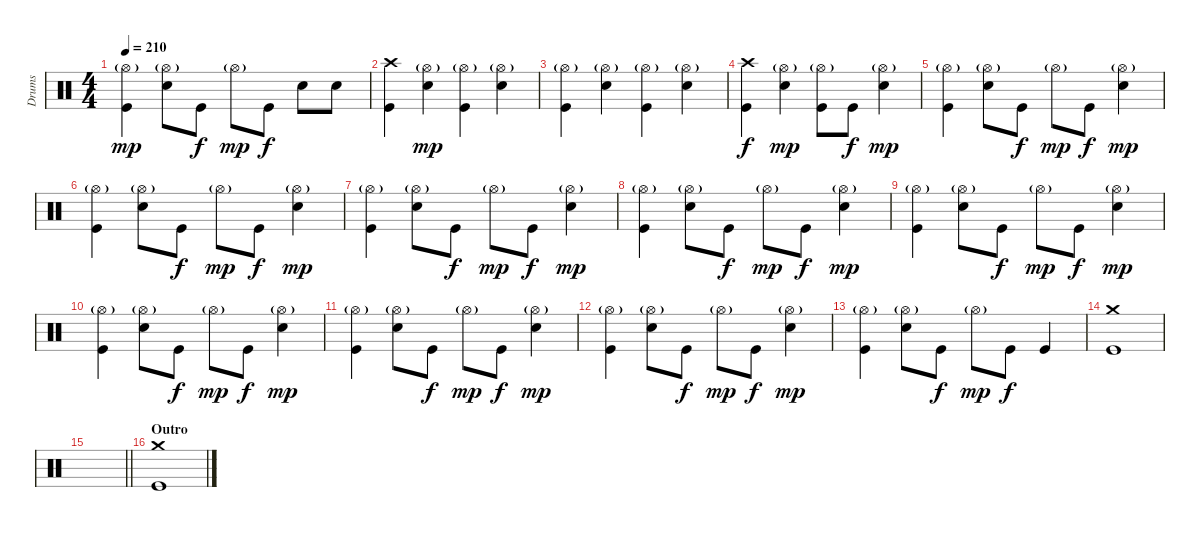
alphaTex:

\track ("Drums" "Drums") {instrument percussion}
\staff {score}
\articulation defaults
\ts (4 4)
\tempo 210
\clef neutral
\ks c
("Hi-Hat (open)"{g} "Kick (hit)").4{dy mp} ("Hi-Hat (open)"{g} "Snare (hit) 2").8 "Kick (hit)".8{dy f} "Hi-Hat (open)"{g}.8{dy mp} "Kick (hit)".8{dy f} "Snare (hit) 2".8 "Snare (hit) 2".8 |
("Crash high (hit)" "Kick (hit)").4 ("Hi-Hat (open)"{g} "Snare (hit) 2").4{dy mp} ("Hi-Hat (open)"{g} "Kick (hit)").4 ("Hi-Hat (open)"{g} "Snare (hit) 2").4 |
("Hi-Hat (open)"{g} "Kick (hit)").4 ("Hi-Hat (open)"{g} "Snare (hit) 2").4 ("Hi-Hat (open)"{g} "Kick (hit)").4 ("Hi-Hat (open)"{g} "Snare (hit) 2").4 |
("Crash high (hit)" "Kick (hit)").4{dy f} ("Hi-Hat (open)"{g} "Snare (hit) 2").4{dy mp} ("Hi-Hat (open)"{g} "Kick (hit)").8 "Kick (hit)".8{dy f} ("Hi-Hat (open)"{g} "Snare (hit) 2").4{dy mp} |
("Hi-Hat (open)"{g} "Kick (hit)").4 ("Hi-Hat (open)"{g} "Snare (hit) 2").8 "Kick (hit)".8{dy f} "Hi-Hat (open)"{g}.8{dy mp} "Kick (hit)".8{dy f} ("Hi-Hat (open)"{g} "Snare (hit) 2").4{dy mp} |
("Hi-Hat (open)"{g} "Kick (hit)").4 ("Hi-Hat (open)"{g} "Snare (hit) 2").8 "Kick (hit)".8{dy f} "Hi-Hat (open)"{g}.8{dy mp} "Kick (hit)".8{dy f} ("Hi-Hat (open)"{g} "Snare (hit) 2").4{dy mp} |
("Hi-Hat (open)"{g} "Kick (hit)").4 ("Hi-Hat (open)"{g} "Snare (hit) 2").8 "Kick (hit)".8{dy f} "Hi-Hat (open)"{g}.8{dy mp} "Kick (hit)".8{dy f} ("Hi-Hat (open)"{g} "Snare (hit) 2").4{dy mp} |
("Hi-Hat (open)"{g} "Kick (hit)").4 ("Hi-Hat (open)"{g} "Snare (hit) 2").8 "Kick (hit)".8{dy f} "Hi-Hat (open)"{g}.8{dy mp} "Kick (hit)".8{dy f} ("Hi-Hat (open)"{g} "Snare (hit) 2").4{dy mp} |
("Hi-Hat (open)"{g} "Kick (hit)").4 ("Hi-Hat (open)"{g} "Snare (hit) 2").8 "Kick (hit)".8{dy f} "Hi-Hat (open)"{g}.8{dy mp} "Kick (hit)".8{dy f} ("Hi-Hat (open)"{g} "Snare (hit) 2").4{dy mp} |
("Hi-Hat (open)"{g} "Kick (hit)").4 ("Hi-Hat (open)"{g} "Snare (hit) 2").8 "Kick (hit)".8{dy f} "Hi-Hat (open)"{g}.8{dy mp} "Kick (hit)".8{dy f} ("Hi-Hat (open)"{g} "Snare (hit) 2").4{dy mp} |
("Hi-Hat (open)"{g} "Kick (hit)").4 ("Hi-Hat (open)"{g} "Snare (hit) 2").8 "Kick (hit)".8{dy f} "Hi-Hat (open)"{g}.8{dy mp} "Kick (hit)".8{dy f} ("Hi-Hat (open)"{g} "Snare (hit) 2").4{dy mp} |
("Hi-Hat (open)"{g} "Kick (hit)").4 ("Hi-Hat (open)"{g} "Snare (hit) 2").8 "Kick (hit)".8{dy f} "Hi-Hat (open)"{g}.8{dy mp} "Kick (hit)".8{dy f} ("Hi-Hat (open)"{g} "Snare (hit) 2").4{dy mp} |
("Hi-Hat (open)"{g} "Kick (hit)").4 ("Hi-Hat (open)"{g} "Snare (hit) 2").8 "Kick (hit)".8{dy f} "Hi-Hat (open)"{g}.8{dy mp} "Kick (hit)".8{dy f} "Kick (hit)".4 |
("Crash medium (hit)" "Kick (hit)").1 |
\barLineRight lightlight
|
\section ("" "Outro")
("Crash medium (hit)" "Kick (hit)").1
